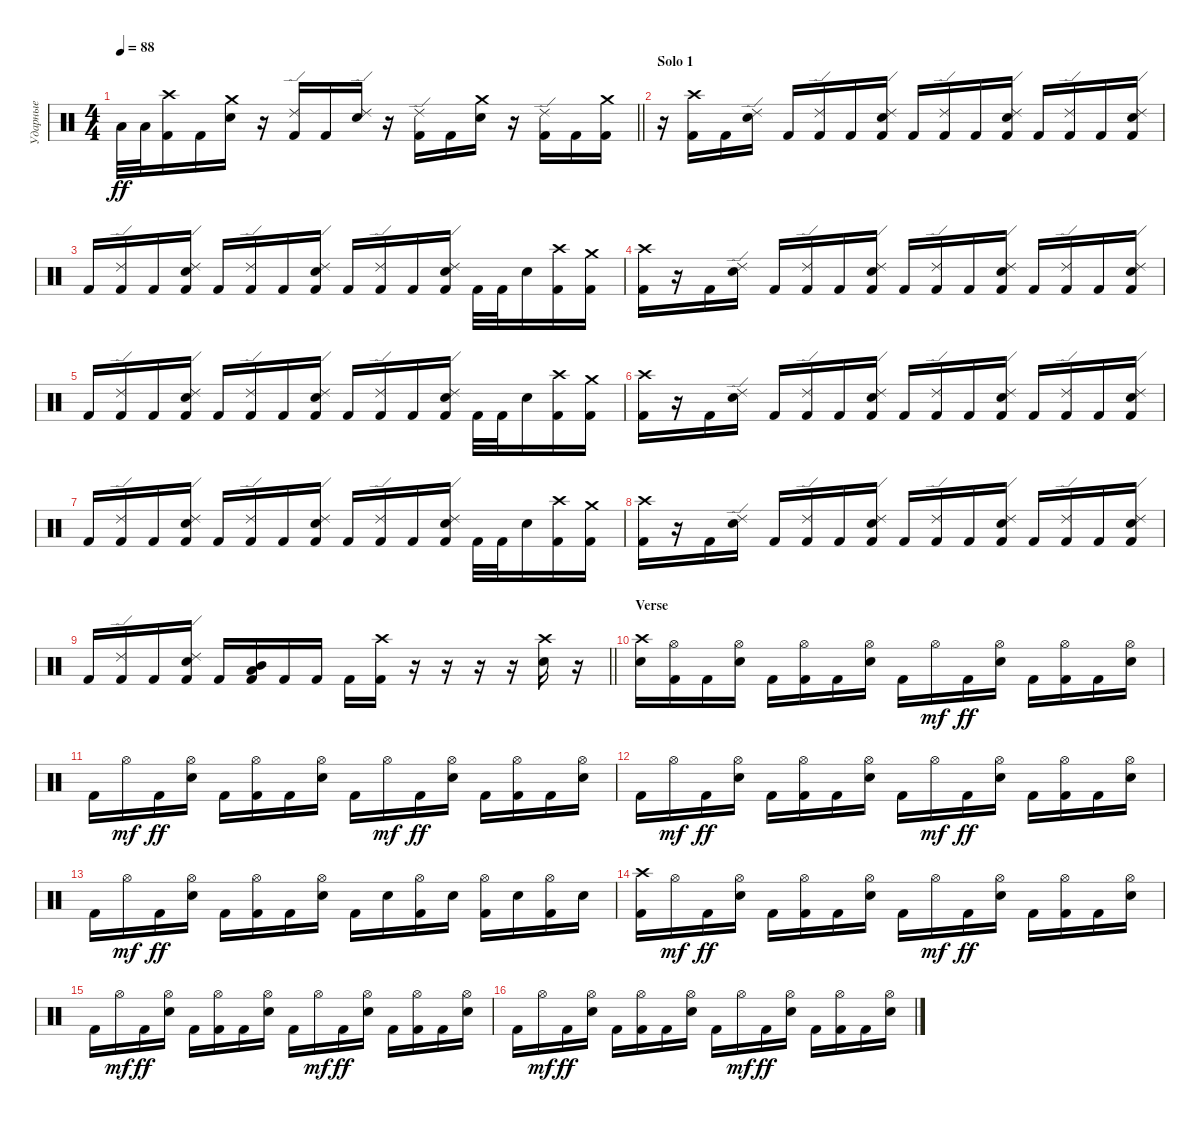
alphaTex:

\track ("Ударные" "Ударные") {instrument percussion}
\staff {score}
\articulation defaults
\ts (4 4)
\tempo 88
\clef neutral
\barLineRight lightlight
\ks c "Low Tom (hit)".32{dy ff} "Low Tom (hit)".32
("Crash high (hit)" "Kick (hit) 2").16 "Kick (hit) 2".16 ("Crash medium (hit)" "Snare (hit) 2").16 r.16 ("Ride (edge) 2" "Kick (hit) 2").16 "Kick (hit) 2".16 ("Ride (edge) 2" "Snare (hit) 2").16 r.16 ("Ride (edge) 2" "Kick (hit) 2").16 "Kick (hit) 2".16 ("Crash medium (hit)" "Snare (hit) 2").16 r.16 ("Ride (edge) 2" "Kick (hit) 2").16 "Kick (hit) 2".16 ("Crash medium (hit)" "Kick (hit) 2").16 |
\section ("" "Solo 1")
r.16 ("Crash high (hit)" "Kick (hit) 2").16 "Kick (hit) 2".16 ("Ride (edge) 2" "Snare (hit) 2").16 "Kick (hit) 2".16 ("Ride (edge) 2" "Kick (hit) 2").16 "Kick (hit) 2".16 ("Ride (edge) 2" "Snare (hit) 2" "Kick (hit) 2").16 "Kick (hit) 2".16 ("Ride (edge) 2" "Kick (hit) 2").16 "Kick (hit) 2".16 ("Ride (edge) 2" "Snare (hit) 2" "Kick (hit) 2").16 "Kick (hit) 2".16 ("Ride (edge) 2" "Kick (hit) 2").16 "Kick (hit) 2".16 ("Ride (edge) 2" "Snare (hit) 2" "Kick (hit) 2").16 |
"Kick (hit) 2".16 ("Ride (edge) 2" "Kick (hit) 2").16 "Kick (hit) 2".16 ("Ride (edge) 2" "Snare (hit) 2" "Kick (hit) 2").16 "Kick (hit) 2".16 ("Ride (edge) 2" "Kick (hit) 2").16 "Kick (hit) 2".16 ("Ride (edge) 2" "Snare (hit) 2" "Kick (hit) 2").16 "Kick (hit) 2".16 ("Ride (edge) 2" "Kick (hit) 2").16 "Kick (hit) 2".16 ("Ride (edge) 2" "Snare (hit) 2" "Kick (hit) 2").16 "Kick (hit) 2".32 "Kick (hit) 2".32 "Snare (hit) 2".16 ("Crash high (hit)" "Kick (hit) 2").16 ("Crash medium (hit)" "Kick (hit) 2").16 |
("Crash high (hit)" "Kick (hit) 2").16 r.16 "Kick (hit) 2".16 ("Ride (edge) 2" "Snare (hit) 2").16 "Kick (hit) 2".16 ("Ride (edge) 2" "Kick (hit) 2").16 "Kick (hit) 2".16 ("Ride (edge) 2" "Snare (hit) 2" "Kick (hit) 2").16 "Kick (hit) 2".16 ("Ride (edge) 2" "Kick (hit) 2").16 "Kick (hit) 2".16 ("Ride (edge) 2" "Snare (hit) 2" "Kick (hit) 2").16 "Kick (hit) 2".16 ("Ride (edge) 2" "Kick (hit) 2").16 "Kick (hit) 2".16 ("Ride (edge) 2" "Snare (hit) 2" "Kick (hit) 2").16 |
"Kick (hit) 2".16 ("Ride (edge) 2" "Kick (hit) 2").16 "Kick (hit) 2".16 ("Ride (edge) 2" "Snare (hit) 2" "Kick (hit) 2").16 "Kick (hit) 2".16 ("Ride (edge) 2" "Kick (hit) 2").16 "Kick (hit) 2".16 ("Ride (edge) 2" "Snare (hit) 2" "Kick (hit) 2").16 "Kick (hit) 2".16 ("Ride (edge) 2" "Kick (hit) 2").16 "Kick (hit) 2".16 ("Ride (edge) 2" "Snare (hit) 2" "Kick (hit) 2").16 "Kick (hit) 2".32 "Kick (hit) 2".32 "Snare (hit) 2".16 ("Crash high (hit)" "Kick (hit) 2").16 ("Crash medium (hit)" "Kick (hit) 2").16 |
("Crash high (hit)" "Kick (hit) 2").16 r.16 "Kick (hit) 2".16 ("Ride (edge) 2" "Snare (hit) 2").16 "Kick (hit) 2".16 ("Ride (edge) 2" "Kick (hit) 2").16 "Kick (hit) 2".16 ("Ride (edge) 2" "Snare (hit) 2" "Kick (hit) 2").16 "Kick (hit) 2".16 ("Ride (edge) 2" "Kick (hit) 2").16 "Kick (hit) 2".16 ("Ride (edge) 2" "Snare (hit) 2" "Kick (hit) 2").16 "Kick (hit) 2".16 ("Ride (edge) 2" "Kick (hit) 2").16 "Kick (hit) 2".16 ("Ride (edge) 2" "Snare (hit) 2" "Kick (hit) 2").16 |
"Kick (hit) 2".16 ("Ride (edge) 2" "Kick (hit) 2").16 "Kick (hit) 2".16 ("Ride (edge) 2" "Snare (hit) 2" "Kick (hit) 2").16 "Kick (hit) 2".16 ("Ride (edge) 2" "Kick (hit) 2").16 "Kick (hit) 2".16 ("Ride (edge) 2" "Snare (hit) 2" "Kick (hit) 2").16 "Kick (hit) 2".16 ("Ride (edge) 2" "Kick (hit) 2").16 "Kick (hit) 2".16 ("Ride (edge) 2" "Snare (hit) 2" "Kick (hit) 2").16 "Kick (hit) 2".32 "Kick (hit) 2".32 "Snare (hit) 2".16 ("Crash high (hit)" "Kick (hit) 2").16 ("Crash medium (hit)" "Kick (hit) 2").16 |
("Crash high (hit)" "Kick (hit) 2").16 r.16 "Kick (hit) 2".16 ("Ride (edge) 2" "Snare (hit) 2").16 "Kick (hit) 2".16 ("Ride (edge) 2" "Kick (hit) 2").16 "Kick (hit) 2".16 ("Ride (edge) 2" "Snare (hit) 2" "Kick (hit) 2").16 "Kick (hit) 2".16 ("Ride (edge) 2" "Kick (hit) 2").16 "Kick (hit) 2".16 ("Ride (edge) 2" "Snare (hit) 2" "Kick (hit) 2").16 "Kick (hit) 2".16 ("Ride (edge) 2" "Kick (hit) 2").16 "Kick (hit) 2".16 ("Ride (edge) 2" "Snare (hit) 2" "Kick (hit) 2").16 |
\barLineRight lightlight "Kick (hit) 2".16
("Ride (edge) 2" "Kick (hit) 2").16 "Kick (hit) 2".16 ("Ride (edge) 2" "Snare (hit) 2" "Kick (hit) 2").16 "Kick (hit) 2".16 ("Mid Tom (hit)" "Low Tom (hit)" "Kick (hit) 2").16 "Kick (hit) 2".16 "Kick (hit) 2".16 "Kick (hit) 2".16 ("Crash high (hit)" "Kick (hit) 2").16 r.16 r.16 r.16 r.16 ("Crash high (hit)" "Snare (hit) 2").16 r.16 |
\section ("" "Verse")
("Crash high (hit)" "Snare (hit) 2").16 ("Hi-Hat (open)" "Kick (hit) 2").16 "Kick (hit) 2".16 ("Hi-Hat (open)" "Snare (hit) 2").16 "Kick (hit) 2".16 ("Hi-Hat (open)" "Kick (hit) 2").16 "Kick (hit) 2".16 ("Hi-Hat (open)" "Snare (hit) 2").16 "Kick (hit) 2".16 "Hi-Hat (open)".16{dy mf} "Kick (hit) 2".16{dy ff} ("Hi-Hat (open)" "Snare (hit) 2").16 "Kick (hit) 2".16 ("Hi-Hat (open)" "Kick (hit) 2").16 "Kick (hit) 2".16 ("Hi-Hat (open)" "Snare (hit) 2").16 |
"Kick (hit) 2".16 "Hi-Hat (open)".16{dy mf} "Kick (hit) 2".16{dy ff} ("Hi-Hat (open)" "Snare (hit) 2").16 "Kick (hit) 2".16 ("Hi-Hat (open)" "Kick (hit) 2").16 "Kick (hit) 2".16 ("Hi-Hat (open)" "Snare (hit) 2").16 "Kick (hit) 2".16 "Hi-Hat (open)".16{dy mf} "Kick (hit) 2".16{dy ff} ("Hi-Hat (open)" "Snare (hit) 2").16 "Kick (hit) 2".16 ("Hi-Hat (open)" "Kick (hit) 2").16 "Kick (hit) 2".16 ("Hi-Hat (open)" "Snare (hit) 2").16 |
"Kick (hit) 2".16 "Hi-Hat (open)".16{dy mf} "Kick (hit) 2".16{dy ff} ("Hi-Hat (open)" "Snare (hit) 2").16 "Kick (hit) 2".16 ("Hi-Hat (open)" "Kick (hit) 2").16 "Kick (hit) 2".16 ("Hi-Hat (open)" "Snare (hit) 2").16 "Kick (hit) 2".16 "Hi-Hat (open)".16{dy mf} "Kick (hit) 2".16{dy ff} ("Hi-Hat (open)" "Snare (hit) 2").16 "Kick (hit) 2".16 ("Hi-Hat (open)" "Kick (hit) 2").16 "Kick (hit) 2".16 ("Hi-Hat (open)" "Snare (hit) 2").16 |
"Kick (hit) 2".16 "Hi-Hat (open)".16{dy mf} "Kick (hit) 2".16{dy ff} ("Hi-Hat (open)" "Snare (hit) 2").16 "Kick (hit) 2".16 ("Hi-Hat (open)" "Kick (hit) 2").16 "Kick (hit) 2".16 ("Hi-Hat (open)" "Snare (hit) 2").16 "Kick (hit) 2".16 "Snare (hit) 2".16 ("Hi-Hat (open)" "Kick (hit) 2").16 "Snare (hit) 2".16 ("Hi-Hat (open)" "Kick (hit) 2").16 "Snare (hit) 2".16 ("Hi-Hat (open)" "Kick (hit) 2").16 "Snare (hit) 2".16 |
("Crash high (hit)" "Kick (hit) 2").16 "Hi-Hat (open)".16{dy mf} "Kick (hit) 2".16{dy ff} ("Hi-Hat (open)" "Snare (hit) 2").16 "Kick (hit) 2".16 ("Hi-Hat (open)" "Kick (hit) 2").16 "Kick (hit) 2".16 ("Hi-Hat (open)" "Snare (hit) 2").16 "Kick (hit) 2".16 "Hi-Hat (open)".16{dy mf} "Kick (hit) 2".16{dy ff} ("Hi-Hat (open)" "Snare (hit) 2").16 "Kick (hit) 2".16 ("Hi-Hat (open)" "Kick (hit) 2").16 "Kick (hit) 2".16 ("Hi-Hat (open)" "Snare (hit) 2").16 |
"Kick (hit) 2".16 "Hi-Hat (open)".16{dy mf} "Kick (hit) 2".16{dy ff} ("Hi-Hat (open)" "Snare (hit) 2").16 "Kick (hit) 2".16 ("Hi-Hat (open)" "Kick (hit) 2").16 "Kick (hit) 2".16 ("Hi-Hat (open)" "Snare (hit) 2").16 "Kick (hit) 2".16 "Hi-Hat (open)".16{dy mf} "Kick (hit) 2".16{dy ff} ("Hi-Hat (open)" "Snare (hit) 2").16 "Kick (hit) 2".16 ("Hi-Hat (open)" "Kick (hit) 2").16 "Kick (hit) 2".16 ("Hi-Hat (open)" "Snare (hit) 2").16 |
"Kick (hit) 2".16 "Hi-Hat (open)".16{dy mf} "Kick (hit) 2".16{dy ff} ("Hi-Hat (open)" "Snare (hit) 2").16 "Kick (hit) 2".16 ("Hi-Hat (open)" "Kick (hit) 2").16 "Kick (hit) 2".16 ("Hi-Hat (open)" "Snare (hit) 2").16 "Kick (hit) 2".16 "Hi-Hat (open)".16{dy mf} "Kick (hit) 2".16{dy ff} ("Hi-Hat (open)" "Snare (hit) 2").16 "Kick (hit) 2".16 ("Hi-Hat (open)" "Kick (hit) 2").16 "Kick (hit) 2".16 ("Hi-Hat (open)" "Snare (hit) 2").16
